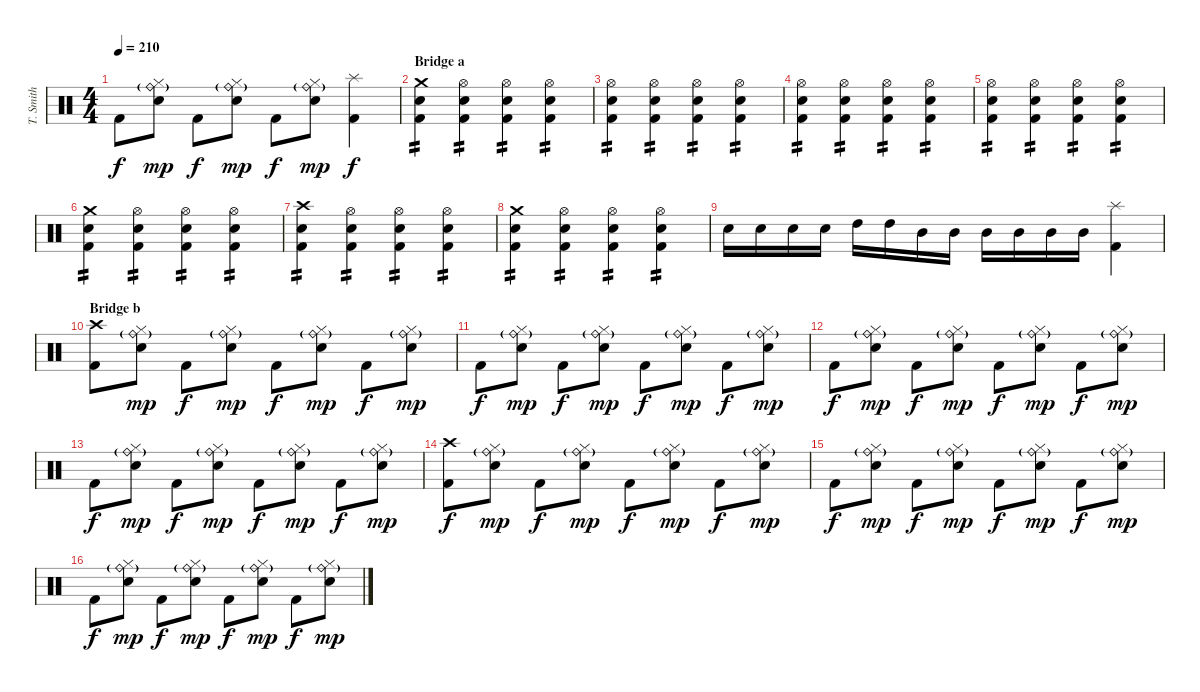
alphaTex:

\track ("T. Smith" "T. Smith") {instrument percussion}
\staff {score}
\articulation defaults
\ts (4 4)
\tempo 210
\clef neutral
\ks c "Kick (hit) 2".8{dy f}
("Hi-Hat (closed)" "Ride (bell)"{g} "Electric Snare (hit)").8{dy mp} "Kick (hit) 2".8{dy f} ("Hi-Hat (closed)" "Ride (bell)"{g} "Electric Snare (hit)").8{dy mp} "Kick (hit) 2".8{dy f} ("Hi-Hat (closed)" "Ride (bell)"{g} "Electric Snare (hit)").8{dy mp} ("Splash (hit)" "Kick (hit) 2").4{dy f} |
\section ("" "Bridge a")
("Crash medium (hit)" "Electric Snare (hit)" "Kick (hit) 2").4{tp 2} ("Hi-Hat (open)" "Electric Snare (hit)" "Kick (hit) 2").4{tp 2} ("Hi-Hat (open)" "Electric Snare (hit)" "Kick (hit) 2").4{tp 2} ("Hi-Hat (open)" "Electric Snare (hit)" "Kick (hit) 2").4{tp 2} |
("Hi-Hat (open)" "Electric Snare (hit)" "Kick (hit) 2").4{tp 2} ("Hi-Hat (open)" "Electric Snare (hit)" "Kick (hit) 2").4{tp 2} ("Hi-Hat (open)" "Electric Snare (hit)" "Kick (hit) 2").4{tp 2} ("Hi-Hat (open)" "Electric Snare (hit)" "Kick (hit) 2").4{tp 2} |
("Hi-Hat (open)" "Electric Snare (hit)" "Kick (hit) 2").4{tp 2} ("Hi-Hat (open)" "Electric Snare (hit)" "Kick (hit) 2").4{tp 2} ("Hi-Hat (open)" "Electric Snare (hit)" "Kick (hit) 2").4{tp 2} ("Hi-Hat (open)" "Electric Snare (hit)" "Kick (hit) 2").4{tp 2} |
("Hi-Hat (open)" "Electric Snare (hit)" "Kick (hit) 2").4{tp 2} ("Hi-Hat (open)" "Electric Snare (hit)" "Kick (hit) 2").4{tp 2} ("Hi-Hat (open)" "Electric Snare (hit)" "Kick (hit) 2").4{tp 2} ("Hi-Hat (open)" "Electric Snare (hit)" "Kick (hit) 2").4{tp 2} |
("Crash medium (hit)" "Electric Snare (hit)" "Kick (hit) 2").4{tp 2} ("Hi-Hat (open)" "Electric Snare (hit)" "Kick (hit) 2").4{tp 2} ("Hi-Hat (open)" "Electric Snare (hit)" "Kick (hit) 2").4{tp 2} ("Hi-Hat (open)" "Electric Snare (hit)" "Kick (hit) 2").4{tp 2} |
("Crash high (hit)" "Electric Snare (hit)" "Kick (hit) 2").4{tp 2} ("Hi-Hat (open)" "Electric Snare (hit)" "Kick (hit) 2").4{tp 2} ("Hi-Hat (open)" "Electric Snare (hit)" "Kick (hit) 2").4{tp 2} ("Hi-Hat (open)" "Electric Snare (hit)" "Kick (hit) 2").4{tp 2} |
("Crash medium (hit)" "Electric Snare (hit)" "Kick (hit) 2").4{tp 2} ("Hi-Hat (open)" "Electric Snare (hit)" "Kick (hit) 2").4{tp 2} ("Hi-Hat (open)" "Electric Snare (hit)" "Kick (hit) 2").4{tp 2} ("Hi-Hat (open)" "Electric Snare (hit)" "Kick (hit) 2").4{tp 2} |
"Electric Snare (hit)".16 "Electric Snare (hit)".16 "Electric Snare (hit)".16 "Electric Snare (hit)".16 "High Tom (hit)".16 "High Tom (hit)".16 "Mid Tom (hit)".16 "Mid Tom (hit)".16 "Mid Tom (hit)".16 "Mid Tom (hit)".16 "Mid Tom (hit)".16 "Mid Tom (hit)".16 ("Splash (hit)" "Kick (hit) 2").4 |
\section ("" "Bridge b")
("Crash high (hit)" "Kick (hit) 2").8 ("Hi-Hat (closed)" "Ride (bell)"{g} "Electric Snare (hit)").8{dy mp} "Kick (hit) 2".8{dy f} ("Hi-Hat (closed)" "Ride (bell)"{g} "Electric Snare (hit)").8{dy mp} "Kick (hit) 2".8{dy f} ("Hi-Hat (closed)" "Ride (bell)"{g} "Electric Snare (hit)").8{dy mp} "Kick (hit) 2".8{dy f} ("Hi-Hat (closed)" "Ride (bell)"{g} "Electric Snare (hit)").8{dy mp} |
"Kick (hit) 2".8{dy f} ("Hi-Hat (closed)" "Ride (bell)"{g} "Electric Snare (hit)").8{dy mp} "Kick (hit) 2".8{dy f} ("Hi-Hat (closed)" "Ride (bell)"{g} "Electric Snare (hit)").8{dy mp} "Kick (hit) 2".8{dy f} ("Hi-Hat (closed)" "Ride (bell)"{g} "Electric Snare (hit)").8{dy mp} "Kick (hit) 2".8{dy f} ("Hi-Hat (closed)" "Ride (bell)"{g} "Electric Snare (hit)").8{dy mp} |
"Kick (hit) 2".8{dy f} ("Hi-Hat (closed)" "Ride (bell)"{g} "Electric Snare (hit)").8{dy mp} "Kick (hit) 2".8{dy f} ("Hi-Hat (closed)" "Ride (bell)"{g} "Electric Snare (hit)").8{dy mp} "Kick (hit) 2".8{dy f} ("Hi-Hat (closed)" "Ride (bell)"{g} "Electric Snare (hit)").8{dy mp} "Kick (hit) 2".8{dy f} ("Hi-Hat (closed)" "Ride (bell)"{g} "Electric Snare (hit)").8{dy mp} |
"Kick (hit) 2".8{dy f} ("Hi-Hat (closed)" "Ride (bell)"{g} "Electric Snare (hit)").8{dy mp} "Kick (hit) 2".8{dy f} ("Hi-Hat (closed)" "Ride (bell)"{g} "Electric Snare (hit)").8{dy mp} "Kick (hit) 2".8{dy f} ("Hi-Hat (closed)" "Ride (bell)"{g} "Electric Snare (hit)").8{dy mp} "Kick (hit) 2".8{dy f} ("Hi-Hat (closed)" "Ride (bell)"{g} "Electric Snare (hit)").8{dy mp} |
("Crash high (hit)" "Kick (hit) 2").8{dy f} ("Hi-Hat (closed)" "Ride (bell)"{g} "Electric Snare (hit)").8{dy mp} "Kick (hit) 2".8{dy f} ("Hi-Hat (closed)" "Ride (bell)"{g} "Electric Snare (hit)").8{dy mp} "Kick (hit) 2".8{dy f} ("Hi-Hat (closed)" "Ride (bell)"{g} "Electric Snare (hit)").8{dy mp} "Kick (hit) 2".8{dy f} ("Hi-Hat (closed)" "Ride (bell)"{g} "Electric Snare (hit)").8{dy mp} |
"Kick (hit) 2".8{dy f} ("Hi-Hat (closed)" "Ride (bell)"{g} "Electric Snare (hit)").8{dy mp} "Kick (hit) 2".8{dy f} ("Hi-Hat (closed)" "Ride (bell)"{g} "Electric Snare (hit)").8{dy mp} "Kick (hit) 2".8{dy f} ("Hi-Hat (closed)" "Ride (bell)"{g} "Electric Snare (hit)").8{dy mp} "Kick (hit) 2".8{dy f} ("Hi-Hat (closed)" "Ride (bell)"{g} "Electric Snare (hit)").8{dy mp} |
"Kick (hit) 2".8{dy f} ("Hi-Hat (closed)" "Ride (bell)"{g} "Electric Snare (hit)").8{dy mp} "Kick (hit) 2".8{dy f} ("Hi-Hat (closed)" "Ride (bell)"{g} "Electric Snare (hit)").8{dy mp} "Kick (hit) 2".8{dy f} ("Hi-Hat (closed)" "Ride (bell)"{g} "Electric Snare (hit)").8{dy mp} "Kick (hit) 2".8{dy f} ("Hi-Hat (closed)" "Ride (bell)"{g} "Electric Snare (hit)").8{dy mp}
